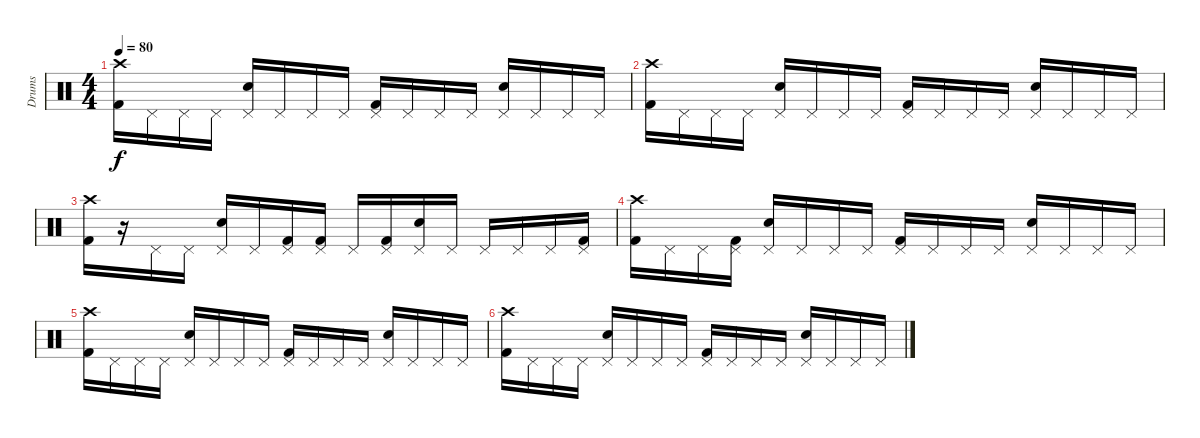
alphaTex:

\track ("Drums" "Drums") {instrument percussion}
\staff {score}
\articulation defaults
\ts (4 4)
\tempo 80
\clef neutral
\ks c
("Crash high (hit)" "Kick (hit) 2").16{dy f} "Pedal Hi-Hat (hit)".16 "Pedal Hi-Hat (hit)".16 "Pedal Hi-Hat (hit)".16 ("Pedal Hi-Hat (hit)" "Snare (hit) 2").16 "Pedal Hi-Hat (hit)".16 "Pedal Hi-Hat (hit)".16 "Pedal Hi-Hat (hit)".16 ("Pedal Hi-Hat (hit)" "Kick (hit) 2").16 "Pedal Hi-Hat (hit)".16 "Pedal Hi-Hat (hit)".16 "Pedal Hi-Hat (hit)".16 ("Pedal Hi-Hat (hit)" "Snare (hit) 2").16 "Pedal Hi-Hat (hit)".16 "Pedal Hi-Hat (hit)".16 "Pedal Hi-Hat (hit)".16 |
("Crash high (hit)" "Kick (hit) 2").16 "Pedal Hi-Hat (hit)".16 "Pedal Hi-Hat (hit)".16 "Pedal Hi-Hat (hit)".16 ("Pedal Hi-Hat (hit)" "Snare (hit) 2").16 "Pedal Hi-Hat (hit)".16 "Pedal Hi-Hat (hit)".16 "Pedal Hi-Hat (hit)".16 ("Pedal Hi-Hat (hit)" "Kick (hit) 2").16 "Pedal Hi-Hat (hit)".16 "Pedal Hi-Hat (hit)".16 "Pedal Hi-Hat (hit)".16 ("Pedal Hi-Hat (hit)" "Snare (hit) 2").16 "Pedal Hi-Hat (hit)".16 "Pedal Hi-Hat (hit)".16 "Pedal Hi-Hat (hit)".16 |
("Crash high (hit)" "Kick (hit) 2").16 r.16 "Pedal Hi-Hat (hit)".16 "Pedal Hi-Hat (hit)".16 ("Pedal Hi-Hat (hit)" "Snare (hit) 2").16 "Pedal Hi-Hat (hit)".16 ("Pedal Hi-Hat (hit)" "Kick (hit) 2").16 ("Pedal Hi-Hat (hit)" "Kick (hit) 2").16 "Pedal Hi-Hat (hit)".16 ("Pedal Hi-Hat (hit)" "Kick (hit) 2").16 ("Pedal Hi-Hat (hit)" "Snare (hit) 2").16 "Pedal Hi-Hat (hit)".16 "Pedal Hi-Hat (hit)".16 "Pedal Hi-Hat (hit)".16 "Pedal Hi-Hat (hit)".16 ("Pedal Hi-Hat (hit)" "Kick (hit) 2").16 |
("Crash high (hit)" "Kick (hit) 2").16 "Pedal Hi-Hat (hit)".16 "Pedal Hi-Hat (hit)".16 ("Pedal Hi-Hat (hit)" "Kick (hit) 2").16 ("Pedal Hi-Hat (hit)" "Snare (hit) 2").16 "Pedal Hi-Hat (hit)".16 "Pedal Hi-Hat (hit)".16 "Pedal Hi-Hat (hit)".16 ("Pedal Hi-Hat (hit)" "Kick (hit) 2").16 "Pedal Hi-Hat (hit)".16 "Pedal Hi-Hat (hit)".16 "Pedal Hi-Hat (hit)".16 ("Pedal Hi-Hat (hit)" "Snare (hit) 2").16 "Pedal Hi-Hat (hit)".16 "Pedal Hi-Hat (hit)".16 "Pedal Hi-Hat (hit)".16 |
("Crash high (hit)" "Kick (hit) 2").16 "Pedal Hi-Hat (hit)".16 "Pedal Hi-Hat (hit)".16 "Pedal Hi-Hat (hit)".16 ("Pedal Hi-Hat (hit)" "Snare (hit) 2").16 "Pedal Hi-Hat (hit)".16 "Pedal Hi-Hat (hit)".16 "Pedal Hi-Hat (hit)".16 ("Pedal Hi-Hat (hit)" "Kick (hit) 2").16 "Pedal Hi-Hat (hit)".16 "Pedal Hi-Hat (hit)".16 "Pedal Hi-Hat (hit)".16 ("Pedal Hi-Hat (hit)" "Snare (hit) 2").16 "Pedal Hi-Hat (hit)".16 "Pedal Hi-Hat (hit)".16 "Pedal Hi-Hat (hit)".16 |
("Crash high (hit)" "Kick (hit) 2").16 "Pedal Hi-Hat (hit)".16 "Pedal Hi-Hat (hit)".16 "Pedal Hi-Hat (hit)".16 ("Pedal Hi-Hat (hit)" "Snare (hit) 2").16 "Pedal Hi-Hat (hit)".16 "Pedal Hi-Hat (hit)".16 "Pedal Hi-Hat (hit)".16 ("Pedal Hi-Hat (hit)" "Kick (hit) 2").16 "Pedal Hi-Hat (hit)".16 "Pedal Hi-Hat (hit)".16 "Pedal Hi-Hat (hit)".16 ("Pedal Hi-Hat (hit)" "Snare (hit) 2").16 "Pedal Hi-Hat (hit)".16 "Pedal Hi-Hat (hit)".16 "Pedal Hi-Hat (hit)".16
